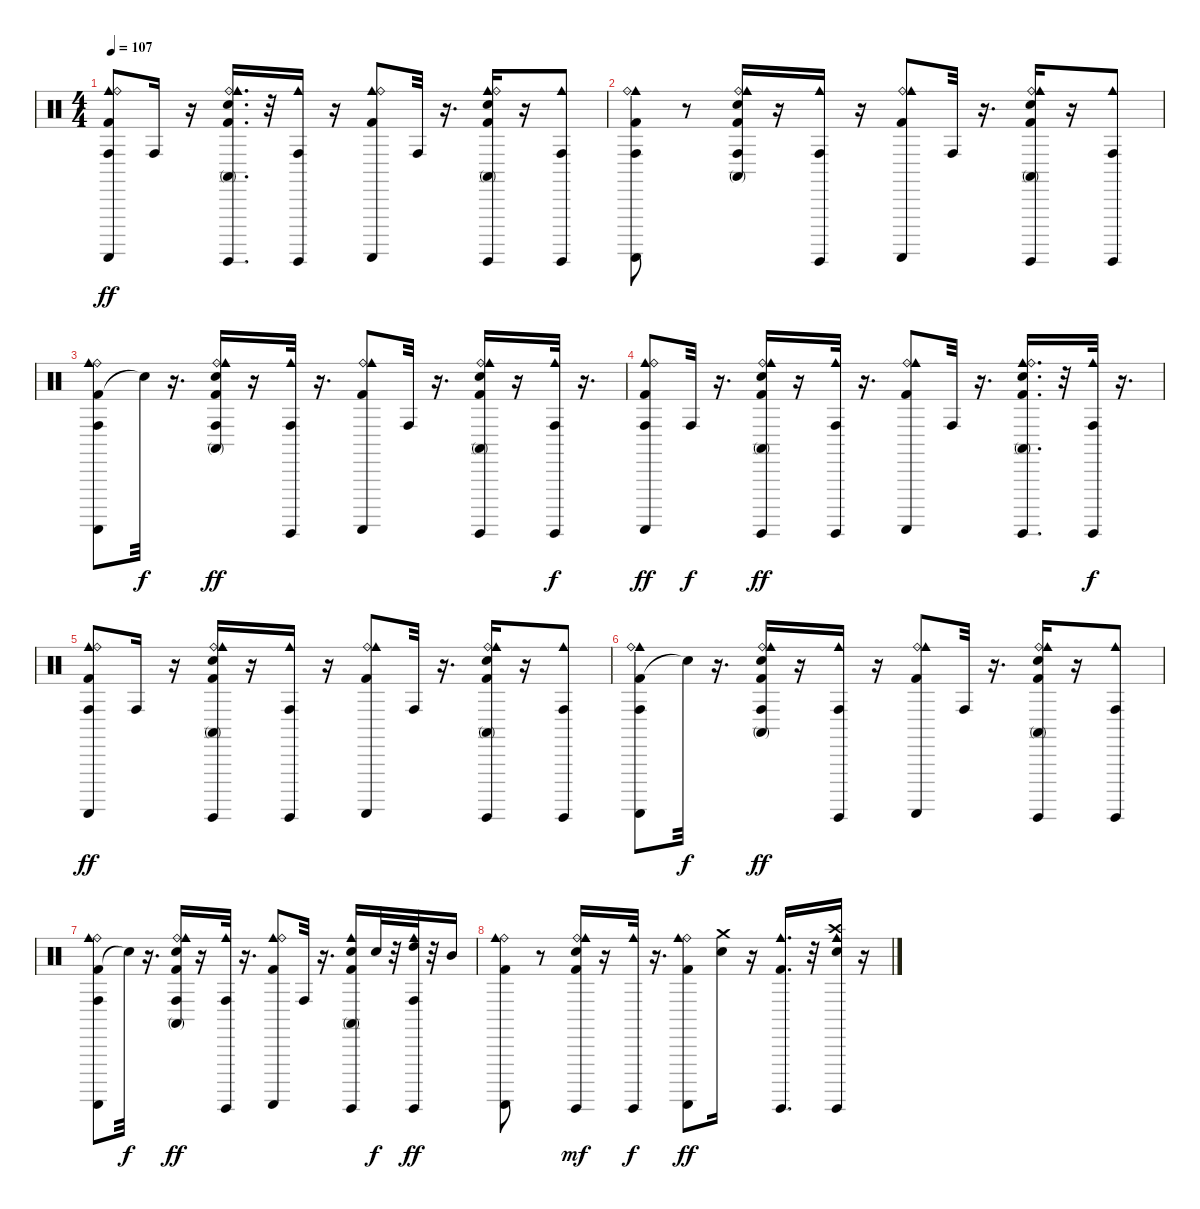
\track "" {instrument percussion}
\staff {score}
\articulation defaults
\ts (4 4)
\tempo 107
\clef neutral
\ks c
("Kick (hit) 2" "Cowbell medium (hit)" "Conga high (hit)" "Guiro (scrap-return)" "Ride (bell)").8{dy ff} "Conga high (hit)".16 r.16 ("Kick (hit) 2" "Electric Snare (hit)" "Ride (bell)" "Cowbell medium (hit)" "Conga high (mute)" "Guiro (hit)").16{d} r.32 ("Cowbell medium (hit)" "Conga high (hit)" "Guiro (hit)").16 r.16 ("Kick (hit) 2" "Cowbell medium (hit)" "Guiro (scrap-return)" "Ride (bell)").8 "Conga high (hit)".32 r.16{d} ("Kick (hit) 2" "Electric Snare (hit)" "Cowbell medium (hit)" "Ride (bell)" "Conga high (mute)" "Guiro (hit)").16 r.16 ("Cowbell medium (hit)" "Conga high (hit)" "Guiro (hit)").8 |
("Kick (hit) 2" "Cowbell medium (hit)" "Conga high (hit)" "Ride (bell)" "Guiro (scrap-return)").8 r.8 ("Kick (hit) 2" "Electric Snare (hit)" "Ride (bell)" "Cowbell medium (hit)" "Conga high (mute)" "Conga high (hit)").16 r.16 ("Cowbell medium (hit)" "Conga high (hit)" "Guiro (hit)").16 r.16 ("Kick (hit) 2" "Ride (bell)" "Cowbell medium (hit)" "Guiro (scrap-return)").8 "Conga high (hit)".32 r.16{d} ("Kick (hit) 2" "Electric Snare (hit)" "Ride (bell)" "Cowbell medium (hit)" "Conga high (mute)" "Guiro (hit)").16 r.16 ("Cowbell medium (hit)" "Conga high (hit)" "Guiro (hit)").8 |
("Kick (hit) 2" "Ride (bell)" "Cowbell medium (hit)" "Conga high (hit)" "Guiro (scrap-return)").8 "Snare (hit)"{t}.32{dy f} r.16{d} ("Kick (hit) 2" "Electric Snare (hit)" "Ride (bell)" "Cowbell medium (hit)" "Conga high (mute)" "Conga high (hit)").16{dy ff} r.16 ("Cowbell medium (hit)" "Conga high (hit)" "Guiro (hit)").32 r.16{d} ("Kick (hit) 2" "Ride (bell)" "Cowbell medium (hit)" "Guiro (scrap-return)").8 "Conga high (hit)".32 r.16{d} ("Electric Snare (hit)" "Kick (hit) 2" "Ride (bell)" "Cowbell medium (hit)" "Conga high (mute)" "Guiro (hit)").16 r.16 ("Cowbell medium (hit)" "Conga high (hit)" "Guiro (hit)").32{dy f} r.16{d} |
("Kick (hit) 2" "Cowbell medium (hit)" "Conga high (hit)" "Ride (bell)" "Guiro (scrap-return)").8{dy ff} "Conga high (hit)".32{dy f} r.16{d} ("Kick (hit) 2" "Electric Snare (hit)" "Ride (bell)" "Cowbell medium (hit)" "Conga high (mute)" "Guiro (hit)").16{dy ff} r.16 ("Cowbell medium (hit)" "Conga high (hit)" "Guiro (hit)").32 r.16{d} ("Kick (hit) 2" "Ride (bell)" "Cowbell medium (hit)" "Guiro (scrap-return)").8 "Conga high (hit)".32 r.16{d} ("Kick (hit) 2" "Electric Snare (hit)" "Cowbell medium (hit)" "Ride (bell)" "Conga high (mute)" "Guiro (hit)").16{d} r.32 ("Cowbell medium (hit)" "Conga high (hit)" "Guiro (hit)").32{dy f} r.16{d} |
("Kick (hit) 2" "Cowbell medium (hit)" "Conga high (hit)" "Ride (bell)" "Guiro (scrap-return)").8{dy ff} "Conga high (hit)".16 r.16 ("Kick (hit) 2" "Electric Snare (hit)" "Ride (bell)" "Cowbell medium (hit)" "Conga high (mute)" "Guiro (hit)").16 r.16 ("Cowbell medium (hit)" "Conga high (hit)" "Guiro (hit)").16 r.16 ("Kick (hit) 2" "Ride (bell)" "Cowbell medium (hit)" "Guiro (scrap-return)").8 "Conga high (hit)".32 r.16{d} ("Electric Snare (hit)" "Kick (hit) 2" "Ride (bell)" "Cowbell medium (hit)" "Conga high (mute)" "Guiro (hit)").16 r.16 ("Cowbell medium (hit)" "Conga high (hit)" "Guiro (hit)").8 |
("Kick (hit) 2" "Cowbell medium (hit)" "Conga high (hit)" "Guiro (scrap-return)" "Ride (bell)").8 "Snare (hit)"{t}.32{dy f} r.16{d} ("Kick (hit) 2" "Electric Snare (hit)" "Ride (bell)" "Cowbell medium (hit)" "Conga high (mute)" "Conga high (hit)").16{dy ff} r.16 ("Cowbell medium (hit)" "Conga high (hit)" "Guiro (hit)").16 r.16 ("Kick (hit) 2" "Ride (bell)" "Cowbell medium (hit)" "Guiro (scrap-return)").8 "Conga high (hit)".32 r.16{d} ("Kick (hit) 2" "Electric Snare (hit)" "Ride (bell)" "Cowbell medium (hit)" "Conga high (mute)" "Guiro (hit)").16 r.16 ("Cowbell medium (hit)" "Conga high (hit)" "Guiro (hit)").8 |
("Kick (hit) 2" "Ride (bell)" "Cowbell medium (hit)" "Conga high (hit)" "Guiro (scrap-return)").8 "Snare (hit)"{t}.32{dy f} r.16{d} ("Kick (hit) 2" "Electric Snare (hit)" "Ride (bell)" "Cowbell medium (hit)" "Conga high (mute)" "Conga high (hit)").16{dy ff} r.16 ("Cowbell medium (hit)" "Conga high (hit)" "Guiro (hit)").32 r.16{d} ("Kick (hit) 2" "Cowbell medium (hit)" "Guiro (scrap-return)" "Ride (bell)").8 "Conga high (hit)".32 r.16{d} ("Kick (hit) 2" "Electric Snare (hit)" "Cowbell medium (hit)" "Conga high (mute)" "Guiro (hit)").16 "Electric Snare (hit)".32{dy f} r.32 ("High Tom (hit)" "Cowbell medium (hit)" "Conga high (hit)" "Guiro (hit)").32{dy ff} r.32 "Mid Tom (hit)".16 |
("Kick (hit) 2" "Ride (bell)" "Cowbell medium (hit)" "Guiro (scrap-return)").8 r.8 ("Kick (hit) 2" "Electric Snare (hit)" "Ride (bell)" "Cowbell medium (hit)" "Guiro (hit)").16{dy mf} r.16 ("Cowbell medium (hit)" "Guiro (hit)").32{dy f} r.16{d} ("Kick (hit) 2" "Ride (bell)" "Cowbell medium (hit)" "Guiro (scrap-return)").8{dy ff} ("Electric Snare (hit)" "Crash medium (hit)").16 r.16 ("Kick (hit) 2" "Cowbell medium (hit)" "Guiro (hit)").16{d} r.32 ("Electric Snare (hit)" "Crash high (hit)" "Cowbell medium (hit)" "Guiro (hit)").16 r.16
